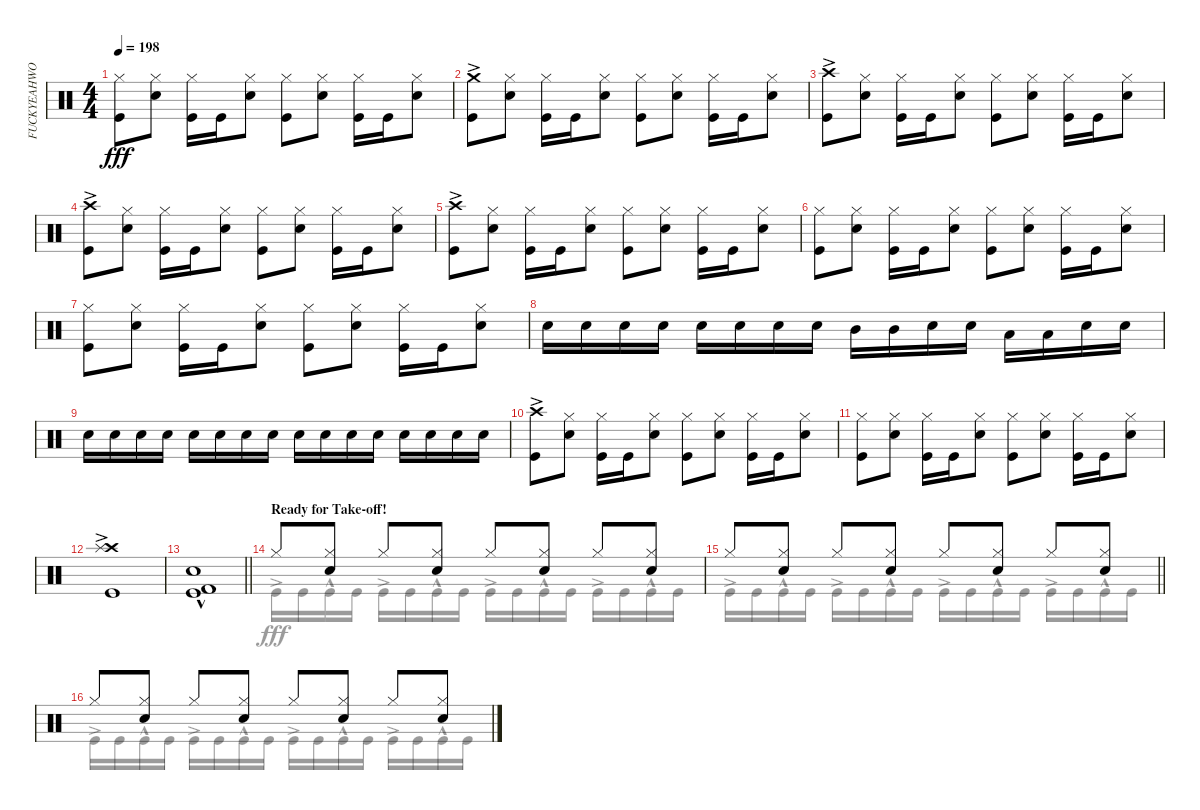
\track ("FUCKYEAHWOOTDAVEMACKINTOSH!(Percussion)" "FUCKYEAHWO") {instrument percussion}
\staff {score}
\articulation defaults
\voice
\ts (4 4)
\tempo 198
\clef neutral
\ks c
("Kick (hit)" "Hi-Hat (closed)").8{dy fff} ("Snare (hit) 2" "Hi-Hat (closed)").8 ("Kick (hit)" "Hi-Hat (closed)").16 "Kick (hit)".16 ("Hi-Hat (closed)" "Snare (hit) 2").8 ("Kick (hit)" "Hi-Hat (closed)").8 ("Snare (hit) 2" "Hi-Hat (closed)").8 ("Kick (hit)" "Hi-Hat (closed)").16 "Kick (hit)".16 ("Snare (hit) 2" "Hi-Hat (closed)").8 |
("Kick (hit)" "Crash medium (hit)"{ac}).8 ("Snare (hit) 2" "Hi-Hat (closed)").8 ("Kick (hit)" "Hi-Hat (closed)").16 "Kick (hit)".16 ("Hi-Hat (closed)" "Snare (hit) 2").8 ("Kick (hit)" "Hi-Hat (closed)").8 ("Snare (hit) 2" "Hi-Hat (closed)").8 ("Kick (hit)" "Hi-Hat (closed)").16 "Kick (hit)".16 ("Snare (hit) 2" "Hi-Hat (closed)").8 |
("Kick (hit)" "Crash high (hit)"{ac}).8 ("Snare (hit) 2" "Hi-Hat (closed)").8 ("Kick (hit)" "Hi-Hat (closed)").16 "Kick (hit)".16 ("Hi-Hat (closed)" "Snare (hit) 2").8 ("Kick (hit)" "Hi-Hat (closed)").8 ("Snare (hit) 2" "Hi-Hat (closed)").8 ("Kick (hit)" "Hi-Hat (closed)").16 "Kick (hit)".16 ("Snare (hit) 2" "Hi-Hat (closed)").8 |
("Kick (hit)" "Crash high (hit)"{ac}).8 ("Snare (hit) 2" "Hi-Hat (closed)").8 ("Kick (hit)" "Hi-Hat (closed)").16 "Kick (hit)".16 ("Hi-Hat (closed)" "Snare (hit) 2").8 ("Kick (hit)" "Hi-Hat (closed)").8 ("Snare (hit) 2" "Hi-Hat (closed)").8 ("Kick (hit)" "Hi-Hat (closed)").16 "Kick (hit)".16 ("Snare (hit) 2" "Hi-Hat (closed)").8 |
("Kick (hit)" "Crash high (hit)"{ac}).8 ("Snare (hit) 2" "Hi-Hat (closed)").8 ("Kick (hit)" "Hi-Hat (closed)").16 "Kick (hit)".16 ("Hi-Hat (closed)" "Snare (hit) 2").8 ("Kick (hit)" "Hi-Hat (closed)").8 ("Snare (hit) 2" "Hi-Hat (closed)").8 ("Kick (hit)" "Hi-Hat (closed)").16 "Kick (hit)".16 ("Snare (hit) 2" "Hi-Hat (closed)").8 |
("Kick (hit)" "Hi-Hat (closed)").8 ("Snare (hit) 2" "Hi-Hat (closed)").8 ("Kick (hit)" "Hi-Hat (closed)").16 "Kick (hit)".16 ("Hi-Hat (closed)" "Snare (hit) 2").8 ("Kick (hit)" "Hi-Hat (closed)").8 ("Snare (hit) 2" "Hi-Hat (closed)").8 ("Kick (hit)" "Hi-Hat (closed)").16 "Kick (hit)".16 ("Snare (hit) 2" "Hi-Hat (closed)").8 |
("Kick (hit)" "Hi-Hat (closed)").8 ("Snare (hit) 2" "Hi-Hat (closed)").8 ("Kick (hit)" "Hi-Hat (closed)").16 "Kick (hit)".16 ("Hi-Hat (closed)" "Snare (hit) 2").8 ("Kick (hit)" "Hi-Hat (closed)").8 ("Snare (hit) 2" "Hi-Hat (closed)").8 ("Kick (hit)" "Hi-Hat (closed)").16 "Kick (hit)".16 ("Snare (hit) 2" "Hi-Hat (closed)").8 |
"Snare (hit) 2".16 "Snare (hit) 2".16 "Snare (hit) 2".16 "Snare (hit) 2".16 "Snare (hit) 2".16 "Snare (hit) 2".16 "Snare (hit) 2".16 "Snare (hit) 2".16 "Mid Tom (hit)".16 "Mid Tom (hit)".16 "Snare (hit) 2".16 "Snare (hit) 2".16 "Low Tom (hit)".16 "Low Tom (hit)".16 "Snare (hit) 2".16 "Snare (hit) 2".16 |
"Snare (hit) 2".16 "Snare (hit) 2".16 "Snare (hit) 2".16 "Snare (hit) 2".16 "Snare (hit) 2".16 "Snare (hit) 2".16 "Snare (hit) 2".16 "Snare (hit) 2".16 "Snare (hit) 2".16 "Snare (hit) 2".16 "Snare (hit) 2".16 "Snare (hit) 2".16 "Snare (hit) 2".16 "Snare (hit) 2".16 "Snare (hit) 2".16 "Snare (hit) 2".16 |
("Kick (hit)" "Crash high (hit)"{ac}).8 ("Snare (hit) 2" "Hi-Hat (closed)").8 ("Kick (hit)" "Hi-Hat (closed)").16 "Kick (hit)".16 ("Hi-Hat (closed)" "Snare (hit) 2").8 ("Kick (hit)" "Hi-Hat (closed)").8 ("Snare (hit) 2" "Hi-Hat (closed)").8 ("Kick (hit)" "Hi-Hat (closed)").16 "Kick (hit)".16 ("Snare (hit) 2" "Hi-Hat (closed)").8 |
("Kick (hit)" "Hi-Hat (closed)").8 ("Snare (hit) 2" "Hi-Hat (closed)").8 ("Kick (hit)" "Hi-Hat (closed)").16 "Kick (hit)".16 ("Hi-Hat (closed)" "Snare (hit) 2").8 ("Kick (hit)" "Hi-Hat (closed)").8 ("Snare (hit) 2" "Hi-Hat (closed)").8 ("Kick (hit)" "Hi-Hat (closed)").16 "Kick (hit)".16 ("Snare (hit) 2" "Hi-Hat (closed)").8 |
("Crash high (hit)"{ac} "Kick (hit)"{ac} "Splash (hit)"{ac}).1 |
\barLineRight lightlight
("Kick (hit)"{hac} "Kick (hit) 2" "Snare (hit) 2").1 |
\section ("" "Ready for Take-off!")
"Hi-Hat (closed)".8 ("Snare (hit) 2" "Hi-Hat (closed)").8 "Hi-Hat (closed)".8 ("Hi-Hat (closed)" "Snare (hit) 2").8 "Hi-Hat (closed)".8 ("Snare (hit) 2" "Hi-Hat (closed)").8 "Hi-Hat (closed)".8 ("Snare (hit) 2" "Hi-Hat (closed)").8 |
\barLineRight lightlight "Hi-Hat (closed)".8
("Snare (hit) 2" "Hi-Hat (closed)").8 "Hi-Hat (closed)".8 ("Hi-Hat (closed)" "Snare (hit) 2").8 "Hi-Hat (closed)".8 ("Snare (hit) 2" "Hi-Hat (closed)").8 "Hi-Hat (closed)".8 ("Snare (hit) 2" "Hi-Hat (closed)").8 |
"Hi-Hat (closed)".8 ("Snare (hit) 2" "Hi-Hat (closed)").8 "Hi-Hat (closed)".8 ("Hi-Hat (closed)" "Snare (hit) 2").8 "Hi-Hat (closed)".8 ("Snare (hit) 2" "Hi-Hat (closed)").8 "Hi-Hat (closed)".8 ("Snare (hit) 2" "Hi-Hat (closed)").8
\voice
\clef neutral
\ottava regular
\simile none
\ks c
|
|
|
|
|
|
|
|
|
|
|
|
\barLineRight lightlight
|
"Kick (hit)"{ac}.16{dy fff} "Kick (hit)".16 "Kick (hit)"{hac}.16 "Kick (hit)".16 "Kick (hit)"{ac}.16 "Kick (hit)".16 "Kick (hit)"{hac}.16 "Kick (hit)".16 "Kick (hit)"{ac}.16 "Kick (hit)".16 "Kick (hit)"{hac}.16 "Kick (hit)".16 "Kick (hit)"{ac}.16 "Kick (hit)".16 "Kick (hit)"{hac}.16 "Kick (hit)".16 |
\barLineRight lightlight "Kick (hit)"{ac}.16 "Kick (hit)".16 "Kick (hit)"{hac}.16 "Kick (hit)".16 "Kick (hit)"{ac}.16 "Kick (hit)".16 "Kick (hit)"{hac}.16 "Kick (hit)".16 "Kick (hit)"{ac}.16 "Kick (hit)".16 "Kick (hit)"{hac}.16 "Kick (hit)".16 "Kick (hit)"{ac}.16 "Kick (hit)".16 "Kick (hit)"{hac}.16 "Kick (hit)".16
|
"Kick (hit)"{ac}.16 "Kick (hit)".16 "Kick (hit)"{hac}.16 "Kick (hit)".16 "Kick (hit)"{ac}.16 "Kick (hit)".16 "Kick (hit)"{hac}.16 "Kick (hit)".16 "Kick (hit)"{ac}.16 "Kick (hit)".16 "Kick (hit)"{hac}.16 "Kick (hit)".16 "Kick (hit)"{ac}.16 "Kick (hit)".16 "Kick (hit)"{hac}.16 "Kick (hit)".16
